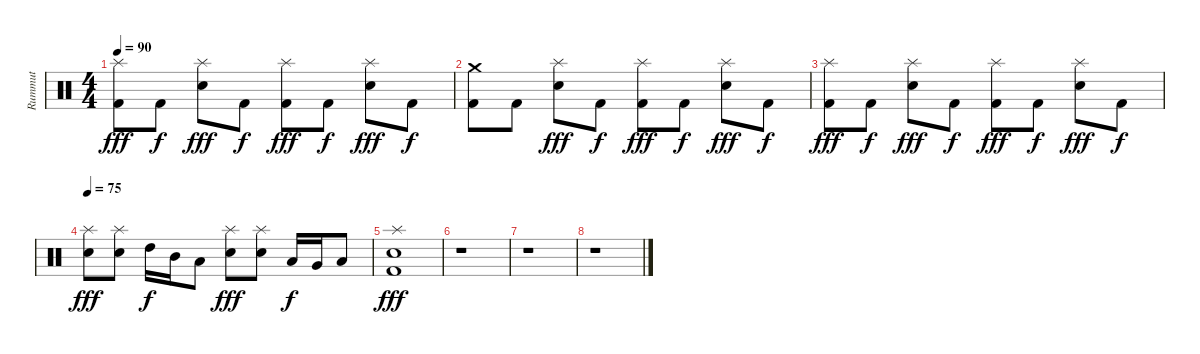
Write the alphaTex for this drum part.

\track ("Rummut" "Rummut") {instrument percussion}
\staff {score}
\articulation defaults
\ts (4 4)
\tempo 90
\clef neutral
\ks c
("Kick (hit) 2" "Splash (hit)").8{dy fff} "Kick (hit) 2".8{dy f} ("Splash (hit)" "Snare (hit) 2").8{dy fff} "Kick (hit) 2".8{dy f} ("Kick (hit) 2" "Splash (hit)").8{dy fff} "Kick (hit) 2".8{dy f} ("Splash (hit)" "Snare (hit) 2").8{dy fff} "Kick (hit) 2".8{dy f} |
("Kick (hit) 2" "Crash medium (hit)").8 "Kick (hit) 2".8 ("Splash (hit)" "Snare (hit) 2").8{dy fff} "Kick (hit) 2".8{dy f} ("Kick (hit) 2" "Splash (hit)").8{dy fff} "Kick (hit) 2".8{dy f} ("Splash (hit)" "Snare (hit) 2").8{dy fff} "Kick (hit) 2".8{dy f} |
("Kick (hit) 2" "Splash (hit)").8{dy fff} "Kick (hit) 2".8{dy f} ("Splash (hit)" "Snare (hit) 2").8{dy fff} "Kick (hit) 2".8{dy f} ("Kick (hit) 2" "Splash (hit)").8{dy fff} "Kick (hit) 2".8{dy f} ("Splash (hit)" "Snare (hit) 2").8{dy fff} "Kick (hit) 2".8{dy f} |
\tempo 75
("Splash (hit)" "Snare (hit) 2").8{dy fff} ("Splash (hit)" "Snare (hit) 2").8 "High Tom (hit)".16{dy f} "Mid Tom (hit)".16 "Low Tom (hit)".8 ("Splash (hit)" "Snare (hit) 2").8{dy fff} ("Splash (hit)" "Snare (hit) 2").8 "Low Tom (hit)".16{dy f} "Very Low Tom (hit)".16 "Low Floor Tom (hit)".8 |
("Kick (hit) 2" "Splash (hit)" "Snare (hit) 2").1{dy fff} |
r.1 |
r.1 |
r.1
